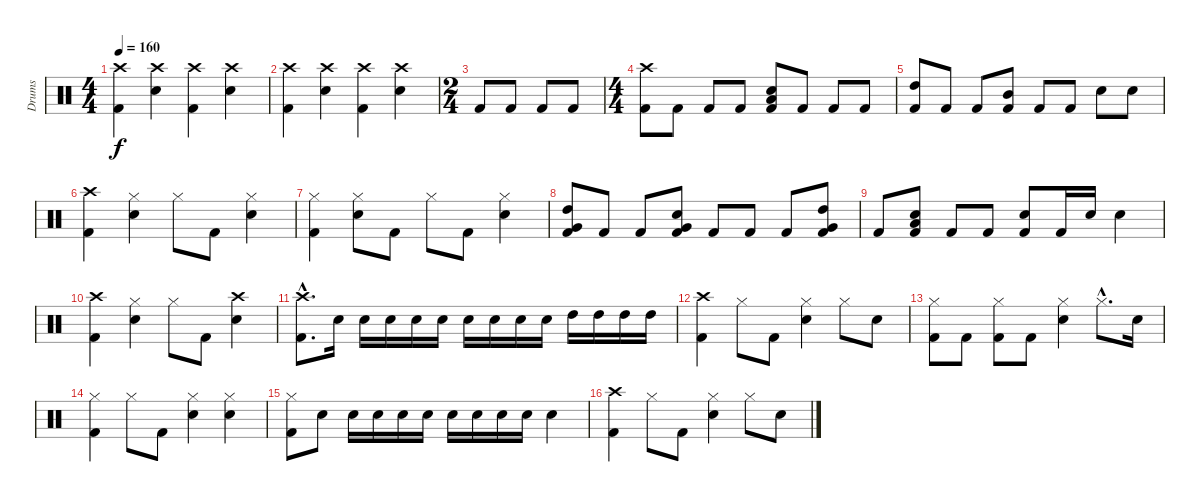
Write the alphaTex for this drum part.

\track ("Drums" "Drums") {instrument percussion}
\staff {score}
\articulation defaults
\ts (4 4)
\tempo 160
\clef neutral
\ks c
("Crash high (hit)" "Kick (hit) 2").4{dy f} ("Crash high (hit)" "Snare (hit) 2").4 ("Crash high (hit)" "Kick (hit) 2").4 ("Crash high (hit)" "Snare (hit) 2").4 |
("Crash high (hit)" "Kick (hit) 2").4 ("Crash high (hit)" "Snare (hit) 2").4 ("Crash high (hit)" "Kick (hit) 2").4 ("Crash high (hit)" "Snare (hit) 2").4 |
\ts (2 4)
"Kick (hit) 2".8 "Kick (hit) 2".8 "Kick (hit) 2".8 "Kick (hit) 2".8 |
\ts (4 4)
("Crash high (hit)" "Kick (hit) 2").8 "Kick (hit) 2".8 "Kick (hit) 2".8 "Kick (hit) 2".8 ("Snare (hit) 2" "Low Tom (hit)" "Kick (hit) 2").8 "Kick (hit) 2".8 "Kick (hit) 2".8 "Kick (hit) 2".8 |
("High Tom (hit)" "Kick (hit) 2").8 "Kick (hit) 2".8 "Kick (hit) 2".8 ("Mid Tom (hit)" "Kick (hit) 2").8 "Kick (hit) 2".8 "Kick (hit) 2".8 "Snare (hit) 2".8 "Snare (hit) 2".8 |
("Crash high (hit)" "Kick (hit) 2").4 ("Hi-Hat (closed)" "Snare (hit) 2").4 "Hi-Hat (closed)".8 "Kick (hit) 2".8 ("Hi-Hat (closed)" "Snare (hit) 2").4 |
("Hi-Hat (closed)" "Kick (hit) 2").4 ("Hi-Hat (closed)" "Snare (hit) 2").8 "Kick (hit) 2".8 "Hi-Hat (closed)".8 "Kick (hit) 2".8 ("Hi-Hat (closed)" "Snare (hit) 2").4 |
("High Tom (hit)" "Very Low Tom (hit)" "Kick (hit) 2").8 "Kick (hit) 2".8 "Kick (hit) 2".8 ("Snare (hit) 2" "Very Low Tom (hit)" "Kick (hit) 2").8 "Kick (hit) 2".8 "Kick (hit) 2".8 "Kick (hit) 2".8 ("High Tom (hit)" "Very Low Tom (hit)" "Kick (hit) 2").8 |
"Kick (hit) 2".8 ("Snare (hit) 2" "Low Tom (hit)" "Kick (hit) 2").8 "Kick (hit) 2".8 "Kick (hit) 2".8 ("Snare (hit) 2" "Kick (hit) 2").8 "Kick (hit) 2".16 "Snare (hit) 2".16 "Snare (hit) 2".4 |
("Crash high (hit)" "Kick (hit) 2").4 ("Hi-Hat (closed)" "Snare (hit) 2").4 "Hi-Hat (closed)".8 "Kick (hit) 2".8 ("Crash high (hit)" "Snare (hit) 2").4 |
("Crash high (hit)"{hac} "Kick (hit) 2"{hac}).8{d} "Snare (hit) 2".16 "Snare (hit) 2".16 "Snare (hit) 2".16 "Snare (hit) 2".16 "Snare (hit) 2".16 "Snare (hit) 2".16 "Snare (hit) 2".16 "Snare (hit) 2".16 "Snare (hit) 2".16 "High Tom (hit)".16 "High Tom (hit)".16 "High Tom (hit)".16 "High Tom (hit)".16 |
("Crash high (hit)" "Kick (hit) 2").4 "Hi-Hat (closed)".8 "Kick (hit) 2".8 ("Hi-Hat (closed)" "Snare (hit) 2").4 "Hi-Hat (closed)".8 "Snare (hit) 2".8 |
("Hi-Hat (closed)" "Kick (hit) 2").8 "Kick (hit) 2".8 ("Hi-Hat (closed)" "Kick (hit) 2").8 "Kick (hit) 2".8 ("Hi-Hat (closed)" "Snare (hit) 2").4 "Hi-Hat (closed)"{hac}.8{d} "Snare (hit) 2".16 |
("Hi-Hat (closed)" "Kick (hit) 2").4 "Hi-Hat (closed)".8 "Kick (hit) 2".8 ("Hi-Hat (closed)" "Snare (hit) 2").4 ("Hi-Hat (closed)" "Snare (hit) 2").4 |
("Hi-Hat (closed)" "Kick (hit) 2").8 "Snare (hit) 2".8 "Snare (hit) 2".16 "Snare (hit) 2".16 "Snare (hit) 2".16 "Snare (hit) 2".16 "Snare (hit) 2".16 "Snare (hit) 2".16 "Snare (hit) 2".16 "Snare (hit) 2".16 "Snare (hit) 2".4 |
("Crash high (hit)" "Kick (hit) 2").4 "Hi-Hat (closed)".8 "Kick (hit) 2".8 ("Hi-Hat (closed)" "Snare (hit) 2").4 "Hi-Hat (closed)".8 "Snare (hit) 2".8
